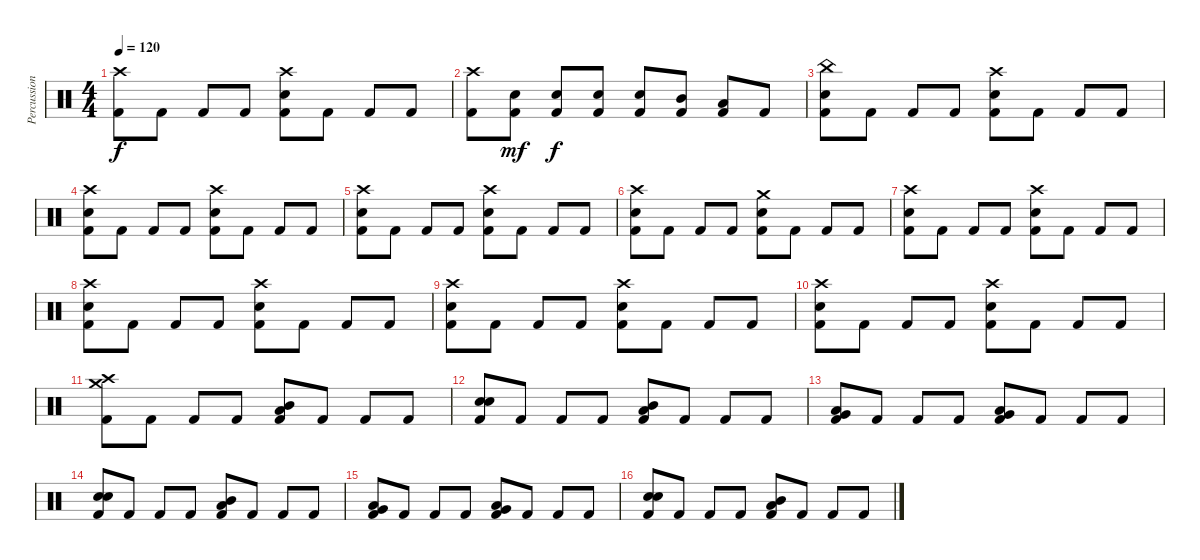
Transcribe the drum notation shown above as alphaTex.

\track ("Percussion" "Percussion") {instrument percussion}
\staff {score}
\articulation defaults
\ts (4 4)
\tempo 120
\clef neutral
\ks c
("Crash high (hit)" "Kick (hit) 2").8{dy f} "Kick (hit) 2".8 "Kick (hit) 2".8 "Kick (hit) 2".8 ("Crash high (hit)" "Electric Snare (hit)" "Kick (hit) 2").8 "Kick (hit) 2".8 "Kick (hit) 2".8 "Kick (hit) 2".8 |
("Crash high (hit)" "Kick (hit) 2").8 ("Electric Snare (hit)" "Kick (hit) 2").8{dy mf} ("Electric Snare (hit)" "Kick (hit) 2").8{dy f} ("Electric Snare (hit)" "Kick (hit) 2").8 ("Electric Snare (hit)" "Kick (hit) 2").8 ("Mid Tom (hit)" "Kick (hit) 2").8 ("Low Tom (hit)" "Kick (hit) 2").8 "Kick (hit) 2".8 |
("China (hit)" "Electric Snare (hit)" "Kick (hit) 2").8 "Kick (hit) 2".8 "Kick (hit) 2".8 "Kick (hit) 2".8 ("Crash high (hit)" "Electric Snare (hit)" "Kick (hit) 2").8 "Kick (hit) 2".8 "Kick (hit) 2".8 "Kick (hit) 2".8 |
("Crash high (hit)" "Electric Snare (hit)" "Kick (hit) 2").8 "Kick (hit) 2".8 "Kick (hit) 2".8 "Kick (hit) 2".8 ("Crash high (hit)" "Electric Snare (hit)" "Kick (hit) 2").8 "Kick (hit) 2".8 "Kick (hit) 2".8 "Kick (hit) 2".8 |
("Crash high (hit)" "Electric Snare (hit)" "Kick (hit) 2").8 "Kick (hit) 2".8 "Kick (hit) 2".8 "Kick (hit) 2".8 ("Crash high (hit)" "Electric Snare (hit)" "Kick (hit) 2").8 "Kick (hit) 2".8 "Kick (hit) 2".8 "Kick (hit) 2".8 |
("Crash high (hit)" "Electric Snare (hit)" "Kick (hit) 2").8 "Kick (hit) 2".8 "Kick (hit) 2".8 "Kick (hit) 2".8 ("Crash medium (hit)" "Electric Snare (hit)" "Kick (hit) 2").8 "Kick (hit) 2".8 "Kick (hit) 2".8 "Kick (hit) 2".8 |
("Crash high (hit)" "Electric Snare (hit)" "Kick (hit) 2").8 "Kick (hit) 2".8 "Kick (hit) 2".8 "Kick (hit) 2".8 ("Crash high (hit)" "Electric Snare (hit)" "Kick (hit) 2").8 "Kick (hit) 2".8 "Kick (hit) 2".8 "Kick (hit) 2".8 |
("Crash high (hit)" "Electric Snare (hit)" "Kick (hit) 2").8 "Kick (hit) 2".8 "Kick (hit) 2".8 "Kick (hit) 2".8 ("Crash high (hit)" "Electric Snare (hit)" "Kick (hit) 2").8 "Kick (hit) 2".8 "Kick (hit) 2".8 "Kick (hit) 2".8 |
("Crash high (hit)" "Electric Snare (hit)" "Kick (hit) 2").8 "Kick (hit) 2".8 "Kick (hit) 2".8 "Kick (hit) 2".8 ("Crash high (hit)" "Electric Snare (hit)" "Kick (hit) 2").8 "Kick (hit) 2".8 "Kick (hit) 2".8 "Kick (hit) 2".8 |
("Crash high (hit)" "Electric Snare (hit)" "Kick (hit) 2").8 "Kick (hit) 2".8 "Kick (hit) 2".8 "Kick (hit) 2".8 ("Crash high (hit)" "Electric Snare (hit)" "Kick (hit) 2").8 "Kick (hit) 2".8 "Kick (hit) 2".8 "Kick (hit) 2".8 |
("Crash high (hit)" "Crash medium (hit)" "Kick (hit) 2").8 "Kick (hit) 2".8 "Kick (hit) 2".8 "Kick (hit) 2".8 ("Mid Tom (hit)" "Low Tom (hit)" "Kick (hit) 2").8{bu 240} "Kick (hit) 2".8 "Kick (hit) 2".8 "Kick (hit) 2".8 |
("Electric Snare (hit)" "Electric Snare (hit)" "Kick (hit) 2").8{bu 240} "Kick (hit) 2".8 "Kick (hit) 2".8 "Kick (hit) 2".8 ("Mid Tom (hit)" "Low Tom (hit)" "Kick (hit) 2").8{bu 240} "Kick (hit) 2".8 "Kick (hit) 2".8 "Kick (hit) 2".8 |
("Low Tom (hit)" "Very Low Tom (hit)" "Kick (hit) 2").8{bu 240} "Kick (hit) 2".8 "Kick (hit) 2".8 "Kick (hit) 2".8 ("Low Tom (hit)" "Very Low Tom (hit)" "Kick (hit) 2").8{bu 240} "Kick (hit) 2".8 "Kick (hit) 2".8 "Kick (hit) 2".8 |
("Electric Snare (hit)" "Electric Snare (hit)" "Kick (hit) 2").8{bu 240} "Kick (hit) 2".8 "Kick (hit) 2".8 "Kick (hit) 2".8 ("Mid Tom (hit)" "Low Tom (hit)" "Kick (hit) 2").8{bu 240} "Kick (hit) 2".8 "Kick (hit) 2".8 "Kick (hit) 2".8 |
("Low Tom (hit)" "Very Low Tom (hit)" "Kick (hit) 2").8{bu 240} "Kick (hit) 2".8 "Kick (hit) 2".8 "Kick (hit) 2".8 ("Low Tom (hit)" "Very Low Tom (hit)" "Kick (hit) 2").8{bu 240} "Kick (hit) 2".8 "Kick (hit) 2".8 "Kick (hit) 2".8 |
("Electric Snare (hit)" "Electric Snare (hit)" "Kick (hit) 2").8{bu 240} "Kick (hit) 2".8 "Kick (hit) 2".8 "Kick (hit) 2".8 ("Mid Tom (hit)" "Low Tom (hit)" "Kick (hit) 2").8{bu 240} "Kick (hit) 2".8 "Kick (hit) 2".8 "Kick (hit) 2".8
